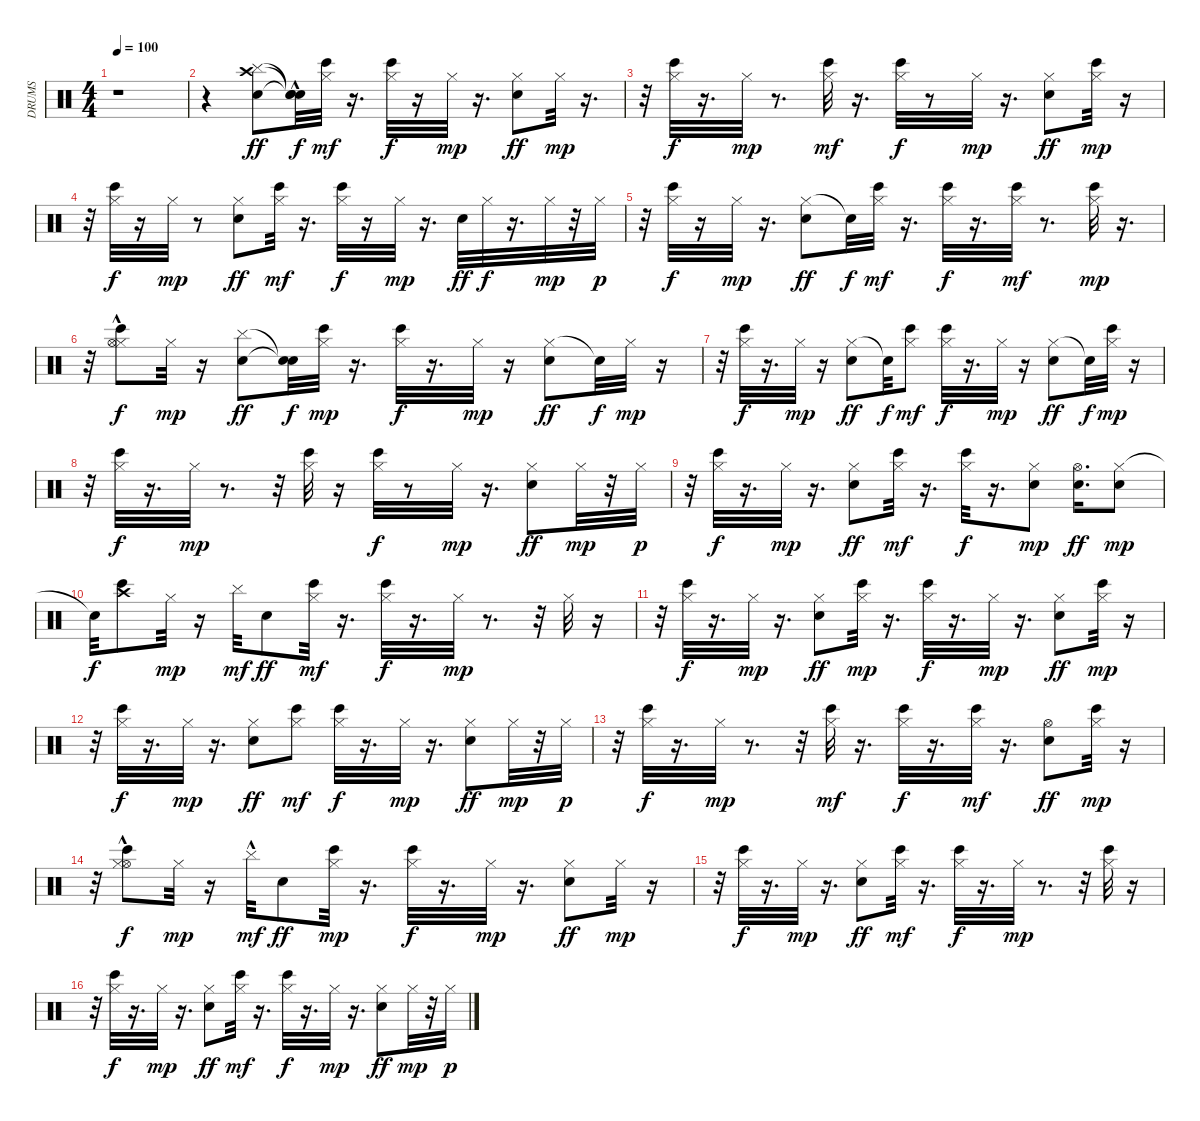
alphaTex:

\track ("DRUMS" "DRUMS") {instrument percussion}
\staff {score}
\articulation defaults
\ts (4 4)
\tempo 100
\clef neutral
\ks c
r.1{dy ff} |
r.4 ("Crash high (hit)" "Cymbal (hit)" "Electric Snare (hit)").8 ("Snare (hit)"{hac t} "Snare (hit)"{t} "Snare (hit)"{t}).32{dy f} ("Hi-Hat (closed)" "Bongo High (hit)").32{dy mf} r.16{d} ("Hi-Hat (closed)" "Bongo High (hit)").32{dy f} r.16 "Hi-Hat (closed)".32{dy mp} r.16{d} ("Hi-Hat (closed)" "Electric Snare (hit)").8{dy ff} "Hi-Hat (closed)".32{dy mp} r.16{d} |
r.32 ("Hi-Hat (closed)" "Bongo High (hit)").32{dy f} r.16{d} "Hi-Hat (closed)".32{dy mp} r.8{d} ("Hi-Hat (closed)" "Bongo High (hit)").32{dy mf} r.16{d} ("Hi-Hat (closed)" "Bongo High (hit)").32{dy f} r.8 "Hi-Hat (closed)".32{dy mp} r.16{d} ("Hi-Hat (closed)" "Electric Snare (hit)").8{dy ff} ("Hi-Hat (closed)" "Bongo High (hit)").32{dy mp} r.16 |
r.32 ("Hi-Hat (closed)" "Bongo High (hit)").32{dy f} r.16 "Hi-Hat (closed)".32{dy mp} r.8 ("Hi-Hat (closed)" "Electric Snare (hit)").8{dy ff} ("Hi-Hat (closed)" "Bongo High (hit)").32{dy mf} r.16{d} ("Hi-Hat (closed)" "Bongo High (hit)").32{dy f} r.16 "Hi-Hat (closed)".32{dy mp} r.16{d} "Electric Snare (hit)".32{dy ff} "Hi-Hat (closed)".32{dy f} r.16{d} "Hi-Hat (closed)".32{dy mp} r.32 "Hi-Hat (closed)".32{dy p} |
r.32 ("Hi-Hat (closed)" "Bongo High (hit)").32{dy f} r.16 "Hi-Hat (closed)".32{dy mp} r.16{d} ("Hi-Hat (closed)" "Electric Snare (hit)").8{dy ff} "Snare (hit)"{t}.32{dy f} ("Hi-Hat (closed)" "Bongo High (hit)").32{dy mf} r.16{d} ("Hi-Hat (closed)" "Bongo High (hit)").32{dy f} r.16{d} ("Hi-Hat (closed)" "Bongo High (hit)").32{dy mf} r.8{d} ("Hi-Hat (closed)" "Bongo High (hit)").32{dy mp} r.16{d} |
r.32 ("Bongo High (hit)" "Hi-Hat (closed)" "Hi-Hat (open)"{hac}).8{dy f} "Hi-Hat (closed)".32{dy mp} r.16 ("Cymbal (hit)" "Electric Snare (hit)").8{dy ff} ("Snare (hit)"{t} "Snare (hit)"{t}).32{dy f} ("Bongo High (hit)" "Hi-Hat (closed)").32{dy mp} r.16{d} ("Bongo High (hit)" "Hi-Hat (closed)").32{dy f} r.16{d} "Hi-Hat (closed)".32{dy mp} r.16 ("Hi-Hat (closed)" "Electric Snare (hit)").8{dy ff} "Snare (hit)"{t}.32{dy f} "Hi-Hat (closed)".32{dy mp} r.16 |
r.32 ("Hi-Hat (closed)" "Bongo High (hit)").32{dy f} r.16{d} "Hi-Hat (closed)".32{dy mp} r.16 ("Hi-Hat (closed)" "Electric Snare (hit)").8{dy ff} "Snare (hit)"{t}.32{dy f} ("Hi-Hat (closed)" "Bongo High (hit)").8{dy mf} ("Hi-Hat (closed)" "Bongo High (hit)").32{dy f} r.16{d} "Hi-Hat (closed)".32{dy mp} r.16 ("Hi-Hat (closed)" "Electric Snare (hit)").8{dy ff} "Snare (hit)"{t}.32{dy f} ("Hi-Hat (closed)" "Bongo High (hit)").32{dy mp} r.16 |
r.32 ("Hi-Hat (closed)" "Bongo High (hit)").32{dy f} r.16{d} "Hi-Hat (closed)".32{dy mp} r.8{d} r.32 ("Bongo High (hit)" "Hi-Hat (closed)").32 r.16 ("Hi-Hat (closed)" "Bongo High (hit)").32{dy f} r.8 "Hi-Hat (closed)".32{dy mp} r.16{d} ("Hi-Hat (closed)" "Electric Snare (hit)").8{dy ff} "Hi-Hat (closed)".32{dy mp} r.32 "Hi-Hat (closed)".32{dy p} |
r.32 ("Bongo High (hit)" "Hi-Hat (closed)").32{dy f} r.16{d} "Hi-Hat (closed)".32{dy mp} r.16{d} ("Hi-Hat (closed)" "Electric Snare (hit)").8{dy ff} ("Hi-Hat (closed)" "Bongo High (hit)").32{dy mf} r.16{d} ("Hi-Hat (closed)" "Bongo High (hit)").32{dy f} r.16{d} ("Hi-Hat (closed)" "Electric Snare (hit)").8{dy mp} ("Hi-Hat (open)" "Electric Snare (hit)").16{d dy ff} ("Hi-Hat (closed)" "Electric Snare (hit)").8{dy mp} |
"Snare (hit)"{t}.32{dy f} ("Bongo High (hit)" "Crash high (hit)").8 "Hi-Hat (closed)".32{dy mp} r.16 "Cymbal (hit)".32{dy mf} "Electric Snare (hit)".8{dy ff} ("Hi-Hat (closed)" "Bongo High (hit)").32{dy mf} r.16{d} ("Hi-Hat (closed)" "Bongo High (hit)").32{dy f} r.16{d} "Hi-Hat (closed)".32{dy mp} r.8{d} r.32 "Hi-Hat (closed)".32 r.16 |
r.32 ("Hi-Hat (closed)" "Bongo High (hit)").32{dy f} r.16{d} "Hi-Hat (closed)".32{dy mp} r.16{d} ("Electric Snare (hit)" "Hi-Hat (closed)").8{dy ff} ("Bongo High (hit)" "Hi-Hat (closed)").32{dy mp} r.16{d} ("Hi-Hat (closed)" "Bongo High (hit)").32{dy f} r.16{d} "Hi-Hat (closed)".32{dy mp} r.16{d} ("Electric Snare (hit)" "Hi-Hat (closed)").8{dy ff} ("Hi-Hat (closed)" "Bongo High (hit)").32{dy mp} r.16 |
r.32 ("Hi-Hat (closed)" "Bongo High (hit)").32{dy f} r.16{d} "Hi-Hat (closed)".32{dy mp} r.16{d} ("Hi-Hat (closed)" "Electric Snare (hit)").8{dy ff} ("Hi-Hat (closed)" "Bongo High (hit)").8{dy mf} ("Hi-Hat (closed)" "Bongo High (hit)").32{dy f} r.16{d} "Hi-Hat (closed)".32{dy mp} r.16{d} ("Hi-Hat (closed)" "Electric Snare (hit)").8{dy ff} "Hi-Hat (closed)".32{dy mp} r.32 "Hi-Hat (closed)".32{dy p} |
r.32 ("Hi-Hat (closed)" "Bongo High (hit)").32{dy f} r.16{d} "Hi-Hat (closed)".32{dy mp} r.8{d} r.32 ("Hi-Hat (closed)" "Bongo High (hit)").32{dy mf} r.16{d} ("Hi-Hat (closed)" "Bongo High (hit)").32{dy f} r.16{d} ("Hi-Hat (closed)" "Bongo High (hit)").32{dy mf} r.16{d} ("Hi-Hat (open)" "Electric Snare (hit)").8{dy ff} ("Bongo High (hit)" "Hi-Hat (closed)").32{dy mp} r.16 |
r.32 ("Hi-Hat (open)"{hac} "Bongo High (hit)" "Hi-Hat (closed)").8{dy f} "Hi-Hat (closed)".32{dy mp} r.16 "Cymbal (hit)"{hac}.32{dy mf} "Electric Snare (hit)".8{dy ff} ("Bongo High (hit)" "Hi-Hat (closed)").32{dy mp} r.16{d} ("Hi-Hat (closed)" "Bongo High (hit)").32{dy f} r.16{d} "Hi-Hat (closed)".32{dy mp} r.16{d} ("Electric Snare (hit)" "Hi-Hat (closed)").8{dy ff} "Hi-Hat (closed)".32{dy mp} r.16 |
r.32 ("Hi-Hat (closed)" "Bongo High (hit)").32{dy f} r.16{d} "Hi-Hat (closed)".32{dy mp} r.16{d} ("Hi-Hat (closed)" "Electric Snare (hit)").8{dy ff} ("Hi-Hat (closed)" "Bongo High (hit)").32{dy mf} r.16{d} ("Hi-Hat (closed)" "Bongo High (hit)").32{dy f} r.16{d} "Hi-Hat (closed)".32{dy mp} r.8{d} r.32 ("Hi-Hat (closed)" "Bongo High (hit)").32 r.16 |
r.32 ("Hi-Hat (closed)" "Bongo High (hit)").32{dy f} r.16{d} "Hi-Hat (closed)".32{dy mp} r.16{d} ("Hi-Hat (closed)" "Electric Snare (hit)").8{dy ff} ("Hi-Hat (closed)" "Bongo High (hit)").32{dy mf} r.16{d} ("Hi-Hat (closed)" "Bongo High (hit)").32{dy f} r.16{d} "Hi-Hat (closed)".32{dy mp} r.16{d} ("Electric Snare (hit)" "Hi-Hat (closed)").8{dy ff} "Hi-Hat (closed)".32{dy mp} r.32 "Hi-Hat (closed)".32{dy p}
